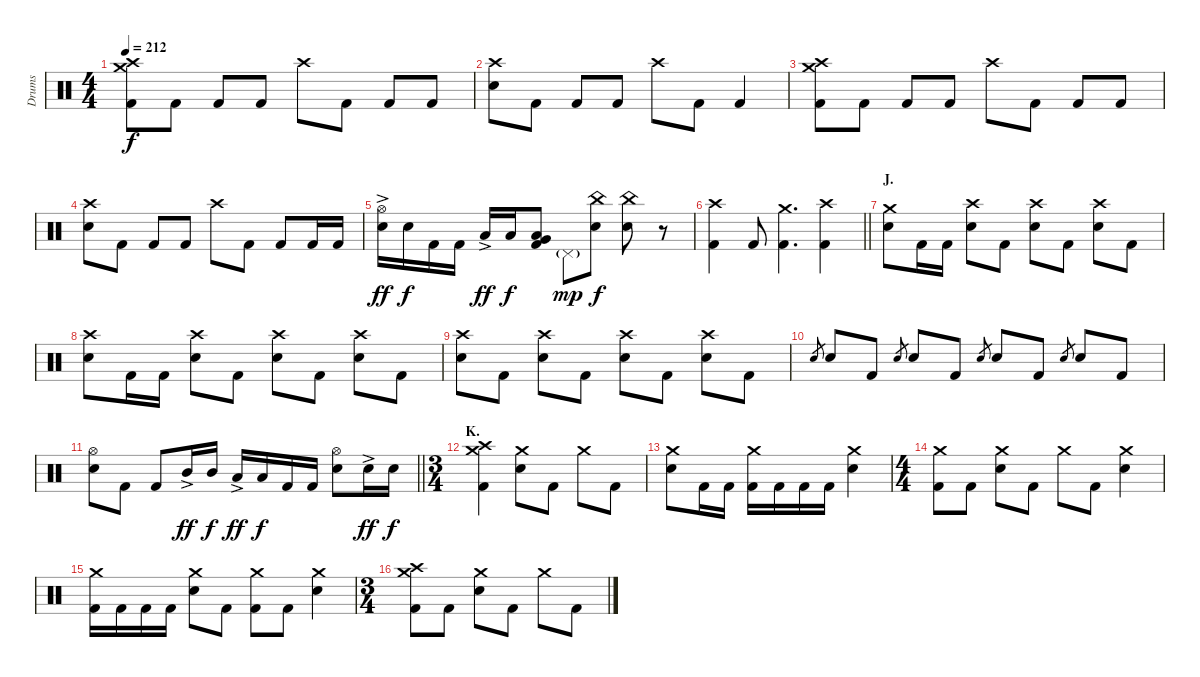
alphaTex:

\track ("Drums" "Drums") {instrument percussion}
\staff {score}
\articulation defaults
\ts (4 4)
\tempo 212
\clef neutral
\ks c
("Crash medium (hit)" "Crash high (hit)" "Kick (hit) 2").8{dy f} "Kick (hit) 2".8 "Kick (hit) 2".8 "Kick (hit) 2".8 "Crash high (hit)".8 "Kick (hit) 2".8 "Kick (hit) 2".8 "Kick (hit) 2".8 |
("Crash high (hit)" "Electric Snare (hit)").8 "Kick (hit) 2".8 "Kick (hit) 2".8 "Kick (hit) 2".8 "Crash high (hit)".8 "Kick (hit) 2".8 "Kick (hit) 2".4 |
("Crash medium (hit)" "Crash high (hit)" "Kick (hit) 2").8 "Kick (hit) 2".8 "Kick (hit) 2".8 "Kick (hit) 2".8 "Crash high (hit)".8 "Kick (hit) 2".8 "Kick (hit) 2".8 "Kick (hit) 2".8 |
("Crash high (hit)" "Electric Snare (hit)").8 "Kick (hit) 2".8 "Kick (hit) 2".8 "Kick (hit) 2".8 "Crash high (hit)".8 "Kick (hit) 2".8 "Kick (hit) 2".8 "Kick (hit) 2".16 "Kick (hit) 2".16 |
("Hi-Hat (open)" "Electric Snare (hit)"{ac}).16{dy ff} "Electric Snare (hit)".16{dy f} "Kick (hit) 2".16 "Kick (hit) 2".16 "Low Tom (hit)"{ac}.16{dy ff} "Low Tom (hit)".16{dy f} ("Very Low Tom (hit)" "Low Floor Tom (hit)" "Kick (hit) 2").8 "Pedal Hi-Hat (hit)"{g}.8{dy mp} ("China (hit)" "Electric Snare (hit)").8{dy f} ("China (hit)" "Electric Snare (hit)").8 r.8 |
\barLineRight lightlight
("Crash high (hit)" "Kick (hit) 2").4 "Kick (hit) 2".8 ("Crash medium (hit)" "Kick (hit) 2").4{d} ("Crash high (hit)" "Kick (hit) 2").4 |
\section ("" "J.")
("Crash medium (hit)" "Electric Snare (hit)").8 "Kick (hit) 2".16 "Kick (hit) 2".16 ("Crash high (hit)" "Electric Snare (hit)").8 "Kick (hit) 2".8 ("Crash high (hit)" "Electric Snare (hit)").8 "Kick (hit) 2".8 ("Crash high (hit)" "Electric Snare (hit)").8 "Kick (hit) 2".8 |
("Crash high (hit)" "Electric Snare (hit)").8 "Kick (hit) 2".16 "Kick (hit) 2".16 ("Crash high (hit)" "Electric Snare (hit)").8 "Kick (hit) 2".8 ("Crash high (hit)" "Electric Snare (hit)").8 "Kick (hit) 2".8 ("Crash high (hit)" "Electric Snare (hit)").8 "Kick (hit) 2".8 |
("Crash high (hit)" "Electric Snare (hit)").8 "Kick (hit) 2".8 ("Crash high (hit)" "Electric Snare (hit)").8 "Kick (hit) 2".8 ("Crash high (hit)" "Electric Snare (hit)").8 "Kick (hit) 2".8 ("Crash high (hit)" "Electric Snare (hit)").8 "Kick (hit) 2".8 |
"Electric Snare (hit)".8{gr} "Electric Snare (hit)".8 "Kick (hit) 2".8 "Electric Snare (hit)".8{gr} "Electric Snare (hit)".8 "Kick (hit) 2".8 "Electric Snare (hit)".8{gr} "Electric Snare (hit)".8 "Kick (hit) 2".8 "Electric Snare (hit)".8{gr} "Electric Snare (hit)".8 "Kick (hit) 2".8 |
\barLineRight lightlight
("Hi-Hat (open)" "Electric Snare (hit)").8 "Kick (hit) 2".8 "Kick (hit) 2".8 "Mid Tom (hit)"{ac}.16{dy ff} "Mid Tom (hit)".16{dy f} "Low Tom (hit)"{ac}.16{dy ff} "Low Tom (hit)".16{dy f} "Kick (hit) 2".16 "Kick (hit) 2".16 ("Hi-Hat (open)" "Electric Snare (hit)").8 "Electric Snare (hit)"{ac}.16{dy ff} "Electric Snare (hit)".16{dy f} |
\ts (3 4)
\section ("" "K.")
("Crash medium (hit)" "Crash high (hit)" "Kick (hit) 2").4 ("Crash medium (hit)" "Electric Snare (hit)").8 "Kick (hit) 2".8 "Crash medium (hit)".8 "Kick (hit) 2".8 |
("Crash medium (hit)" "Electric Snare (hit)").8 "Kick (hit) 2".16 "Kick (hit) 2".16 ("Crash medium (hit)" "Kick (hit) 2").16 "Kick (hit) 2".16 "Kick (hit) 2".16 "Kick (hit) 2".16 ("Crash medium (hit)" "Electric Snare (hit)").4 |
\ts (4 4)
("Crash medium (hit)" "Kick (hit) 2").8 "Kick (hit) 2".8 ("Crash medium (hit)" "Electric Snare (hit)").8 "Kick (hit) 2".8 "Crash medium (hit)".8 "Kick (hit) 2".8 ("Crash medium (hit)" "Electric Snare (hit)").4 |
("Crash medium (hit)" "Kick (hit) 2").16 "Kick (hit) 2".16 "Kick (hit) 2".16 "Kick (hit) 2".16 ("Crash medium (hit)" "Electric Snare (hit)").8 "Kick (hit) 2".8 ("Crash medium (hit)" "Kick (hit) 2").8 "Kick (hit) 2".8 ("Crash medium (hit)" "Electric Snare (hit)").4 |
\ts (3 4)
("Crash medium (hit)" "Crash high (hit)" "Kick (hit) 2").8 "Kick (hit) 2".8 ("Crash medium (hit)" "Electric Snare (hit)").8 "Kick (hit) 2".8 "Crash medium (hit)".8 "Kick (hit) 2".8
